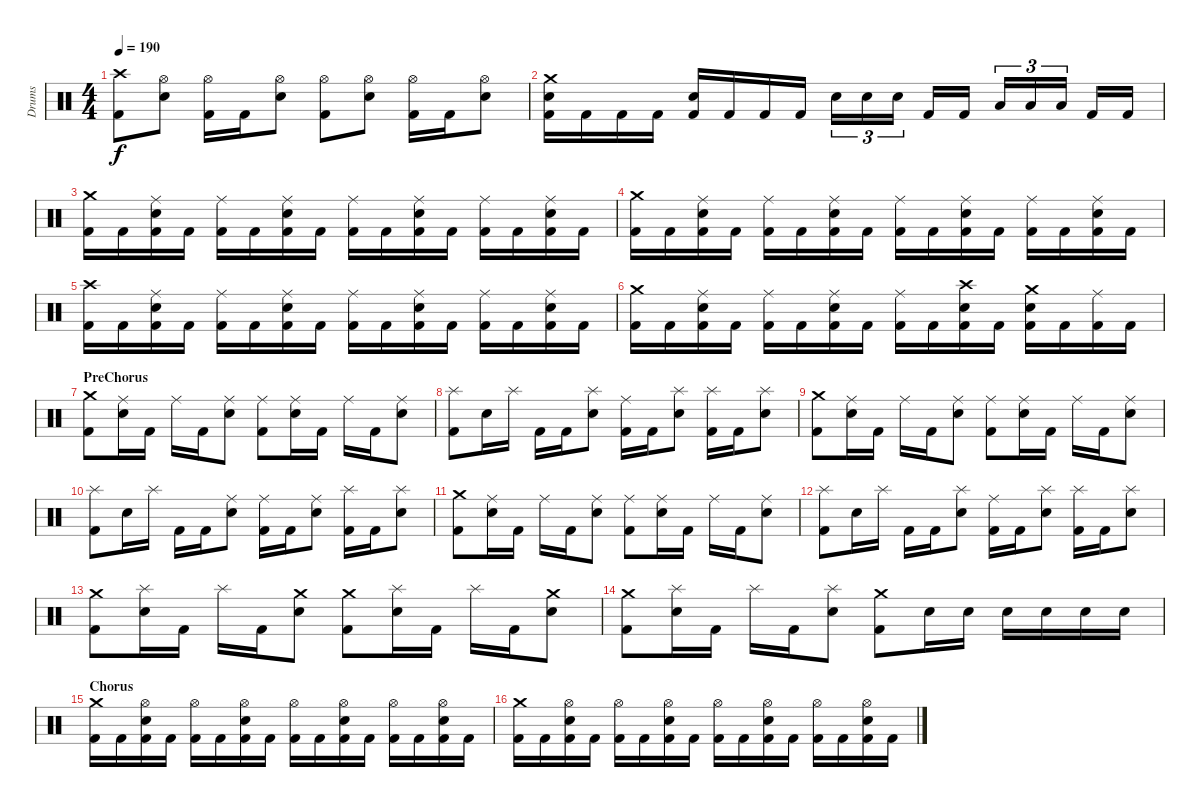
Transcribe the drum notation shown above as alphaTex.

\track ("Drums" "Drums") {instrument percussion}
\staff {score}
\articulation defaults
\ts (4 4)
\tempo 190
\clef neutral
\ks c
("Crash high (hit)" "Kick (hit) 2").8{dy f} ("Hi-Hat (open)" "Snare (hit) 2").8 ("Hi-Hat (open)" "Kick (hit) 2").16 "Kick (hit) 2".16 ("Hi-Hat (open)" "Snare (hit) 2").8 ("Hi-Hat (open)" "Kick (hit) 2").8 ("Hi-Hat (open)" "Snare (hit) 2").8 ("Hi-Hat (open)" "Kick (hit) 2").16 "Kick (hit) 2".16 ("Hi-Hat (open)" "Snare (hit) 2").8 |
("Crash medium (hit)" "Snare (hit) 2" "Kick (hit) 2").16 "Kick (hit) 2".16 "Kick (hit) 2".16 "Kick (hit) 2".16 ("Snare (hit) 2" "Kick (hit) 2").16 "Kick (hit) 2".16 "Kick (hit) 2".16 "Kick (hit) 2".16 "Snare (hit) 2".16{tu (3 2)} "Snare (hit) 2".16{tu (3 2)} "Snare (hit) 2".16{tu (3 2)} "Kick (hit) 2".16 "Kick (hit) 2".16 "Low Tom (hit)".16{tu (3 2)} "Low Tom (hit)".16{tu (3 2)} "Low Tom (hit)".16{tu (3 2)} "Kick (hit) 2".16 "Kick (hit) 2".16 |
("Crash medium (hit)" "Kick (hit) 2").16 "Kick (hit) 2".16 ("Ride (middle)" "Snare (hit) 2" "Kick (hit) 2").16 "Kick (hit) 2".16 ("Ride (middle)" "Kick (hit) 2").16 "Kick (hit) 2".16 ("Ride (middle)" "Snare (hit) 2" "Kick (hit) 2").16 "Kick (hit) 2".16 ("Ride (middle)" "Kick (hit) 2").16 "Kick (hit) 2".16 ("Ride (middle)" "Snare (hit) 2" "Kick (hit) 2").16 "Kick (hit) 2".16 ("Ride (middle)" "Kick (hit) 2").16 "Kick (hit) 2".16 ("Ride (middle)" "Snare (hit) 2" "Kick (hit) 2").16 "Kick (hit) 2".16 |
("Crash medium (hit)" "Kick (hit) 2").16 "Kick (hit) 2".16 ("Ride (middle)" "Snare (hit) 2" "Kick (hit) 2").16 "Kick (hit) 2".16 ("Ride (middle)" "Kick (hit) 2").16 "Kick (hit) 2".16 ("Ride (middle)" "Snare (hit) 2" "Kick (hit) 2").16 "Kick (hit) 2".16 ("Ride (middle)" "Kick (hit) 2").16 "Kick (hit) 2".16 ("Ride (middle)" "Snare (hit) 2" "Kick (hit) 2").16 "Kick (hit) 2".16 ("Ride (middle)" "Kick (hit) 2").16 "Kick (hit) 2".16 ("Ride (middle)" "Snare (hit) 2" "Kick (hit) 2").16 "Kick (hit) 2".16 |
("Crash high (hit)" "Kick (hit) 2").16 "Kick (hit) 2".16 ("Ride (middle)" "Snare (hit) 2" "Kick (hit) 2").16 "Kick (hit) 2".16 ("Ride (middle)" "Kick (hit) 2").16 "Kick (hit) 2".16 ("Ride (middle)" "Snare (hit) 2" "Kick (hit) 2").16 "Kick (hit) 2".16 ("Ride (middle)" "Kick (hit) 2").16 "Kick (hit) 2".16 ("Ride (middle)" "Snare (hit) 2" "Kick (hit) 2").16 "Kick (hit) 2".16 ("Ride (middle)" "Kick (hit) 2").16 "Kick (hit) 2".16 ("Ride (middle)" "Snare (hit) 2" "Kick (hit) 2").16 "Kick (hit) 2".16 |
("Crash medium (hit)" "Kick (hit) 2").16 "Kick (hit) 2".16 ("Ride (middle)" "Snare (hit) 2" "Kick (hit) 2").16 "Kick (hit) 2".16 ("Ride (middle)" "Kick (hit) 2").16 "Kick (hit) 2".16 ("Ride (middle)" "Snare (hit) 2" "Kick (hit) 2").16 "Kick (hit) 2".16 ("Ride (middle)" "Kick (hit) 2").16 "Kick (hit) 2".16 ("Crash high (hit)" "Snare (hit) 2" "Kick (hit) 2").16 "Kick (hit) 2".16 ("Crash medium (hit)" "Snare (hit) 2" "Kick (hit) 2").16 "Kick (hit) 2".16 ("Ride (middle)" "Kick (hit) 2").16 "Kick (hit) 2".16 |
\section ("" "PreChorus")
("Crash medium (hit)" "Kick (hit) 2").8 ("Ride (middle)" "Snare (hit) 2").16 "Kick (hit) 2".16 "Ride (middle)".16 "Kick (hit) 2".16 ("Ride (middle)" "Snare (hit) 2").8 ("Ride (middle)" "Kick (hit) 2").8 ("Ride (middle)" "Snare (hit) 2").16 "Kick (hit) 2".16 "Ride (middle)".16 "Kick (hit) 2".16 ("Ride (middle)" "Snare (hit) 2").8 |
("Splash (hit)" "Kick (hit) 2").8 "Snare (hit) 2".16 "Splash (hit)".16 "Kick (hit) 2".16 "Kick (hit) 2".16 ("Splash (hit)" "Snare (hit) 2").8 ("Ride (middle)" "Kick (hit) 2").16 "Kick (hit) 2".16 ("Splash (hit)" "Snare (hit) 2").8 ("Splash (hit)" "Kick (hit) 2").16 "Kick (hit) 2".16 ("Splash (hit)" "Snare (hit) 2").8 |
("Crash medium (hit)" "Kick (hit) 2").8 ("Ride (middle)" "Snare (hit) 2").16 "Kick (hit) 2".16 "Ride (middle)".16 "Kick (hit) 2".16 ("Ride (middle)" "Snare (hit) 2").8 ("Ride (middle)" "Kick (hit) 2").8 ("Ride (middle)" "Snare (hit) 2").16 "Kick (hit) 2".16 "Ride (middle)".16 "Kick (hit) 2".16 ("Ride (middle)" "Snare (hit) 2").8 |
("Splash (hit)" "Kick (hit) 2").8 "Snare (hit) 2".16 "Splash (hit)".16 "Kick (hit) 2".16 "Kick (hit) 2".16 ("Ride (middle)" "Snare (hit) 2").8 ("Ride (middle)" "Kick (hit) 2").16 "Kick (hit) 2".16 ("Ride (middle)" "Snare (hit) 2").8 ("Splash (hit)" "Kick (hit) 2").16 "Kick (hit) 2".16 ("Splash (hit)" "Snare (hit) 2").8 |
("Crash medium (hit)" "Kick (hit) 2").8 ("Ride (middle)" "Snare (hit) 2").16 "Kick (hit) 2".16 "Ride (middle)".16 "Kick (hit) 2".16 ("Ride (middle)" "Snare (hit) 2").8 ("Ride (middle)" "Kick (hit) 2").8 ("Ride (middle)" "Snare (hit) 2").16 "Kick (hit) 2".16 "Ride (middle)".16 "Kick (hit) 2".16 ("Ride (middle)" "Snare (hit) 2").8 |
("Splash (hit)" "Kick (hit) 2").8 "Snare (hit) 2".16 "Splash (hit)".16 "Kick (hit) 2".16 "Kick (hit) 2".16 ("Splash (hit)" "Snare (hit) 2").8 ("Ride (middle)" "Kick (hit) 2").16 "Kick (hit) 2".16 ("Splash (hit)" "Snare (hit) 2").8 ("Splash (hit)" "Kick (hit) 2").16 "Kick (hit) 2".16 ("Splash (hit)" "Snare (hit) 2").8 |
("Crash medium (hit)" "Kick (hit) 2").8 ("Splash (hit)" "Snare (hit) 2").16 "Kick (hit) 2".16 "Splash (hit)".16 "Kick (hit) 2".16 ("Crash medium (hit)" "Snare (hit) 2").8 ("Crash medium (hit)" "Kick (hit) 2").8 ("Splash (hit)" "Snare (hit) 2").16 "Kick (hit) 2".16 "Splash (hit)".16 "Kick (hit) 2".16 ("Crash medium (hit)" "Snare (hit) 2").8 |
("Crash medium (hit)" "Kick (hit) 2").8 ("Splash (hit)" "Snare (hit) 2").16 "Kick (hit) 2".16 "Splash (hit)".16 "Kick (hit) 2".16 ("Splash (hit)" "Snare (hit) 2").8 ("Crash medium (hit)" "Kick (hit) 2").8 "Snare (hit) 2".16 "Snare (hit) 2".16 "Snare (hit) 2".16 "Snare (hit) 2".16 "Snare (hit) 2".16 "Snare (hit) 2".16 |
\section ("" "Chorus")
("Crash medium (hit)" "Kick (hit) 2").16 "Kick (hit) 2".16 ("Hi-Hat (open)" "Snare (hit) 2" "Kick (hit) 2").16 "Kick (hit) 2".16 ("Hi-Hat (open)" "Kick (hit) 2").16 "Kick (hit) 2".16 ("Hi-Hat (open)" "Snare (hit) 2" "Kick (hit) 2").16 "Kick (hit) 2".16 ("Hi-Hat (open)" "Kick (hit) 2").16 "Kick (hit) 2".16 ("Hi-Hat (open)" "Snare (hit) 2" "Kick (hit) 2").16 "Kick (hit) 2".16 ("Hi-Hat (open)" "Kick (hit) 2").16 "Kick (hit) 2".16 ("Hi-Hat (open)" "Snare (hit) 2" "Kick (hit) 2").16 "Kick (hit) 2".16 |
("Crash medium (hit)" "Kick (hit) 2").16 "Kick (hit) 2".16 ("Hi-Hat (open)" "Snare (hit) 2" "Kick (hit) 2").16 "Kick (hit) 2".16 ("Hi-Hat (open)" "Kick (hit) 2").16 "Kick (hit) 2".16 ("Hi-Hat (open)" "Snare (hit) 2" "Kick (hit) 2").16 "Kick (hit) 2".16 ("Hi-Hat (open)" "Kick (hit) 2").16 "Kick (hit) 2".16 ("Hi-Hat (open)" "Snare (hit) 2" "Kick (hit) 2").16 "Kick (hit) 2".16 ("Hi-Hat (open)" "Kick (hit) 2").16 "Kick (hit) 2".16 ("Hi-Hat (open)" "Snare (hit) 2" "Kick (hit) 2").16 "Kick (hit) 2".16
